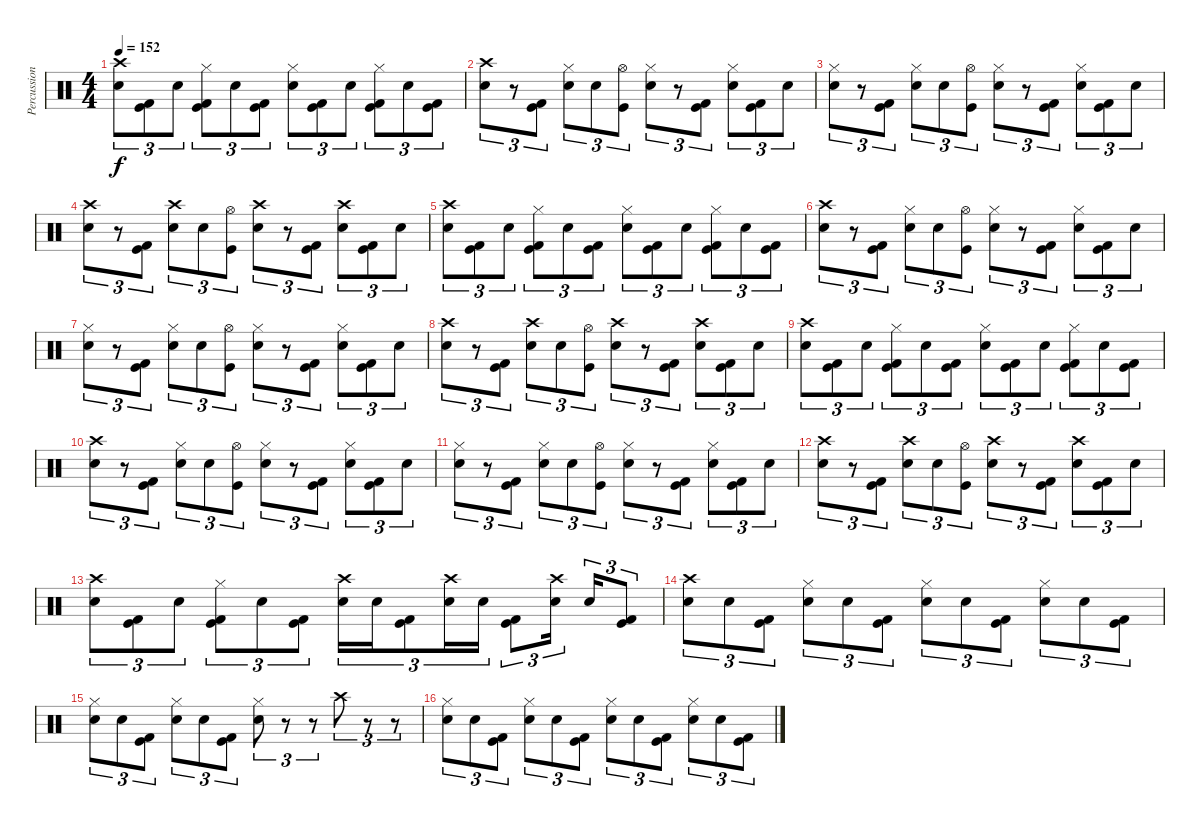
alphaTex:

\track ("Percussion" "Percussion") {instrument percussion}
\staff {score}
\articulation defaults
\ts (4 4)
\tempo 152
\clef neutral
\ks c
("Crash high (hit)" "Electric Snare (hit)").8{tu (3 2) dy f} ("Kick (hit) 2" "Kick (hit)").8{tu (3 2)} "Electric Snare (hit)".8{tu (3 2)} ("Hi-Hat (closed)" "Kick (hit) 2" "Kick (hit)").8{tu (3 2)} "Electric Snare (hit)".8{tu (3 2)} ("Kick (hit) 2" "Kick (hit)").8{tu (3 2)} ("Hi-Hat (closed)" "Electric Snare (hit)").8{tu (3 2)} ("Kick (hit) 2" "Kick (hit)").8{tu (3 2)} "Electric Snare (hit)".8{tu (3 2)} ("Hi-Hat (closed)" "Kick (hit) 2" "Kick (hit)").8{tu (3 2)} "Electric Snare (hit)".8{tu (3 2)} ("Kick (hit) 2" "Kick (hit)").8{tu (3 2)} |
("Crash high (hit)" "Electric Snare (hit)").8{tu (3 2)} r.8{tu (3 2)} ("Kick (hit) 2" "Kick (hit)").8{tu (3 2)} ("Hi-Hat (closed)" "Electric Snare (hit)").8{tu (3 2)} "Electric Snare (hit)".8{tu (3 2)} ("Hi-Hat (open)" "Kick (hit)").8{tu (3 2)} ("Hi-Hat (closed)" "Electric Snare (hit)").8{tu (3 2)} r.8{tu (3 2)} ("Kick (hit) 2" "Kick (hit)").8{tu (3 2)} ("Hi-Hat (closed)" "Electric Snare (hit)").8{tu (3 2)} ("Kick (hit) 2" "Kick (hit)").8{tu (3 2)} "Electric Snare (hit)".8{tu (3 2)} |
("Hi-Hat (closed)" "Electric Snare (hit)").8{tu (3 2)} r.8{tu (3 2)} ("Kick (hit) 2" "Kick (hit)").8{tu (3 2)} ("Hi-Hat (closed)" "Electric Snare (hit)").8{tu (3 2)} "Electric Snare (hit)".8{tu (3 2)} ("Hi-Hat (open)" "Kick (hit)").8{tu (3 2)} ("Hi-Hat (closed)" "Electric Snare (hit)").8{tu (3 2)} r.8{tu (3 2)} ("Kick (hit) 2" "Kick (hit)").8{tu (3 2)} ("Hi-Hat (closed)" "Electric Snare (hit)").8{tu (3 2)} ("Kick (hit) 2" "Kick (hit)").8{tu (3 2)} "Electric Snare (hit)".8{tu (3 2)} |
("Crash high (hit)" "Electric Snare (hit)").8{tu (3 2)} r.8{tu (3 2)} ("Kick (hit) 2" "Kick (hit)").8{tu (3 2)} ("Crash high (hit)" "Electric Snare (hit)").8{tu (3 2)} "Electric Snare (hit)".8{tu (3 2)} ("Hi-Hat (open)" "Kick (hit)").8{tu (3 2)} ("Crash high (hit)" "Electric Snare (hit)").8{tu (3 2)} r.8{tu (3 2)} ("Kick (hit) 2" "Kick (hit)").8{tu (3 2)} ("Crash high (hit)" "Electric Snare (hit)").8{tu (3 2)} ("Kick (hit) 2" "Kick (hit)").8{tu (3 2)} "Electric Snare (hit)".8{tu (3 2)} |
("Crash high (hit)" "Electric Snare (hit)").8{tu (3 2)} ("Kick (hit) 2" "Kick (hit)").8{tu (3 2)} "Electric Snare (hit)".8{tu (3 2)} ("Hi-Hat (closed)" "Kick (hit) 2" "Kick (hit)").8{tu (3 2)} "Electric Snare (hit)".8{tu (3 2)} ("Kick (hit) 2" "Kick (hit)").8{tu (3 2)} ("Hi-Hat (closed)" "Electric Snare (hit)").8{tu (3 2)} ("Kick (hit) 2" "Kick (hit)").8{tu (3 2)} "Electric Snare (hit)".8{tu (3 2)} ("Hi-Hat (closed)" "Kick (hit) 2" "Kick (hit)").8{tu (3 2)} "Electric Snare (hit)".8{tu (3 2)} ("Kick (hit) 2" "Kick (hit)").8{tu (3 2)} |
("Crash high (hit)" "Electric Snare (hit)").8{tu (3 2)} r.8{tu (3 2)} ("Kick (hit) 2" "Kick (hit)").8{tu (3 2)} ("Hi-Hat (closed)" "Electric Snare (hit)").8{tu (3 2)} "Electric Snare (hit)".8{tu (3 2)} ("Hi-Hat (open)" "Kick (hit)").8{tu (3 2)} ("Hi-Hat (closed)" "Electric Snare (hit)").8{tu (3 2)} r.8{tu (3 2)} ("Kick (hit) 2" "Kick (hit)").8{tu (3 2)} ("Hi-Hat (closed)" "Electric Snare (hit)").8{tu (3 2)} ("Kick (hit) 2" "Kick (hit)").8{tu (3 2)} "Electric Snare (hit)".8{tu (3 2)} |
("Hi-Hat (closed)" "Electric Snare (hit)").8{tu (3 2)} r.8{tu (3 2)} ("Kick (hit) 2" "Kick (hit)").8{tu (3 2)} ("Hi-Hat (closed)" "Electric Snare (hit)").8{tu (3 2)} "Electric Snare (hit)".8{tu (3 2)} ("Hi-Hat (open)" "Kick (hit)").8{tu (3 2)} ("Hi-Hat (closed)" "Electric Snare (hit)").8{tu (3 2)} r.8{tu (3 2)} ("Kick (hit) 2" "Kick (hit)").8{tu (3 2)} ("Hi-Hat (closed)" "Electric Snare (hit)").8{tu (3 2)} ("Kick (hit) 2" "Kick (hit)").8{tu (3 2)} "Electric Snare (hit)".8{tu (3 2)} |
("Crash high (hit)" "Electric Snare (hit)").8{tu (3 2)} r.8{tu (3 2)} ("Kick (hit) 2" "Kick (hit)").8{tu (3 2)} ("Crash high (hit)" "Electric Snare (hit)").8{tu (3 2)} "Electric Snare (hit)".8{tu (3 2)} ("Hi-Hat (open)" "Kick (hit)").8{tu (3 2)} ("Crash high (hit)" "Electric Snare (hit)").8{tu (3 2)} r.8{tu (3 2)} ("Kick (hit) 2" "Kick (hit)").8{tu (3 2)} ("Crash high (hit)" "Electric Snare (hit)").8{tu (3 2)} ("Kick (hit) 2" "Kick (hit)").8{tu (3 2)} "Electric Snare (hit)".8{tu (3 2)} |
("Crash high (hit)" "Electric Snare (hit)").8{tu (3 2)} ("Kick (hit) 2" "Kick (hit)").8{tu (3 2)} "Electric Snare (hit)".8{tu (3 2)} ("Hi-Hat (closed)" "Kick (hit) 2" "Kick (hit)").8{tu (3 2)} "Electric Snare (hit)".8{tu (3 2)} ("Kick (hit) 2" "Kick (hit)").8{tu (3 2)} ("Hi-Hat (closed)" "Electric Snare (hit)").8{tu (3 2)} ("Kick (hit) 2" "Kick (hit)").8{tu (3 2)} "Electric Snare (hit)".8{tu (3 2)} ("Hi-Hat (closed)" "Kick (hit) 2" "Kick (hit)").8{tu (3 2)} "Electric Snare (hit)".8{tu (3 2)} ("Kick (hit) 2" "Kick (hit)").8{tu (3 2)} |
("Crash high (hit)" "Electric Snare (hit)").8{tu (3 2)} r.8{tu (3 2)} ("Kick (hit) 2" "Kick (hit)").8{tu (3 2)} ("Hi-Hat (closed)" "Electric Snare (hit)").8{tu (3 2)} "Electric Snare (hit)".8{tu (3 2)} ("Hi-Hat (open)" "Kick (hit)").8{tu (3 2)} ("Hi-Hat (closed)" "Electric Snare (hit)").8{tu (3 2)} r.8{tu (3 2)} ("Kick (hit) 2" "Kick (hit)").8{tu (3 2)} ("Hi-Hat (closed)" "Electric Snare (hit)").8{tu (3 2)} ("Kick (hit) 2" "Kick (hit)").8{tu (3 2)} "Electric Snare (hit)".8{tu (3 2)} |
("Hi-Hat (closed)" "Electric Snare (hit)").8{tu (3 2)} r.8{tu (3 2)} ("Kick (hit) 2" "Kick (hit)").8{tu (3 2)} ("Hi-Hat (closed)" "Electric Snare (hit)").8{tu (3 2)} "Electric Snare (hit)".8{tu (3 2)} ("Hi-Hat (open)" "Kick (hit)").8{tu (3 2)} ("Hi-Hat (closed)" "Electric Snare (hit)").8{tu (3 2)} r.8{tu (3 2)} ("Kick (hit) 2" "Kick (hit)").8{tu (3 2)} ("Hi-Hat (closed)" "Electric Snare (hit)").8{tu (3 2)} ("Kick (hit) 2" "Kick (hit)").8{tu (3 2)} "Electric Snare (hit)".8{tu (3 2)} |
("Crash high (hit)" "Electric Snare (hit)").8{tu (3 2)} r.8{tu (3 2)} ("Kick (hit) 2" "Kick (hit)").8{tu (3 2)} ("Crash high (hit)" "Electric Snare (hit)").8{tu (3 2)} "Electric Snare (hit)".8{tu (3 2)} ("Hi-Hat (open)" "Kick (hit)").8{tu (3 2)} ("Crash high (hit)" "Electric Snare (hit)").8{tu (3 2)} r.8{tu (3 2)} ("Kick (hit) 2" "Kick (hit)").8{tu (3 2)} ("Crash high (hit)" "Electric Snare (hit)").8{tu (3 2)} ("Kick (hit) 2" "Kick (hit)").8{tu (3 2)} "Electric Snare (hit)".8{tu (3 2)} |
("Crash high (hit)" "Electric Snare (hit)").8{tu (3 2)} ("Kick (hit) 2" "Kick (hit)").8{tu (3 2)} "Electric Snare (hit)".8{tu (3 2)} ("Hi-Hat (closed)" "Kick (hit) 2" "Kick (hit)").8{tu (3 2)} "Electric Snare (hit)".8{tu (3 2)} ("Kick (hit) 2" "Kick (hit)").8{tu (3 2)} ("Crash high (hit)" "Electric Snare (hit)").16{tu (3 2)} "Electric Snare (hit)".16{tu (3 2)} ("Kick (hit) 2" "Kick (hit)").8{tu (3 2)} ("Crash high (hit)" "Electric Snare (hit)").16{tu (3 2)} "Electric Snare (hit)".16{tu (3 2)} ("Kick (hit) 2" "Kick (hit)").8{tu (3 2)} ("Crash high (hit)" "Electric Snare (hit)").16{tu (3 2) beam splitsecondary} "Electric Snare (hit)".16{tu (3 2)} ("Kick (hit) 2" "Kick (hit)").8{tu (3 2)} |
("Crash high (hit)" "Electric Snare (hit)").8{tu (3 2)} "Electric Snare (hit)".8{tu (3 2)} ("Kick (hit) 2" "Kick (hit)").8{tu (3 2)} ("Hi-Hat (closed)" "Electric Snare (hit)").8{tu (3 2)} "Electric Snare (hit)".8{tu (3 2)} ("Kick (hit) 2" "Kick (hit)").8{tu (3 2)} ("Hi-Hat (closed)" "Electric Snare (hit)").8{tu (3 2)} "Electric Snare (hit)".8{tu (3 2)} ("Kick (hit) 2" "Kick (hit)").8{tu (3 2)} ("Hi-Hat (closed)" "Electric Snare (hit)").8{tu (3 2)} "Electric Snare (hit)".8{tu (3 2)} ("Kick (hit) 2" "Kick (hit)").8{tu (3 2)} |
("Hi-Hat (closed)" "Electric Snare (hit)").8{tu (3 2)} "Electric Snare (hit)".8{tu (3 2)} ("Kick (hit) 2" "Kick (hit)").8{tu (3 2)} ("Hi-Hat (closed)" "Electric Snare (hit)").8{tu (3 2)} "Electric Snare (hit)".8{tu (3 2)} ("Kick (hit) 2" "Kick (hit)").8{tu (3 2)} ("Hi-Hat (closed)" "Electric Snare (hit)").8{tu (3 2)} r.8{tu (3 2)} r.8{tu (3 2)} "Crash high (hit)".8{tu (3 2)} r.8{tu (3 2)} r.8{tu (3 2)} |
("Hi-Hat (closed)" "Electric Snare (hit)").8{tu (3 2)} "Electric Snare (hit)".8{tu (3 2)} ("Kick (hit) 2" "Kick (hit)").8{tu (3 2)} ("Hi-Hat (closed)" "Electric Snare (hit)").8{tu (3 2)} "Electric Snare (hit)".8{tu (3 2)} ("Kick (hit) 2" "Kick (hit)").8{tu (3 2)} ("Hi-Hat (closed)" "Electric Snare (hit)").8{tu (3 2)} "Electric Snare (hit)".8{tu (3 2)} ("Kick (hit) 2" "Kick (hit)").8{tu (3 2)} ("Hi-Hat (closed)" "Electric Snare (hit)").8{tu (3 2)} "Electric Snare (hit)".8{tu (3 2)} ("Kick (hit) 2" "Kick (hit)").8{tu (3 2)}
